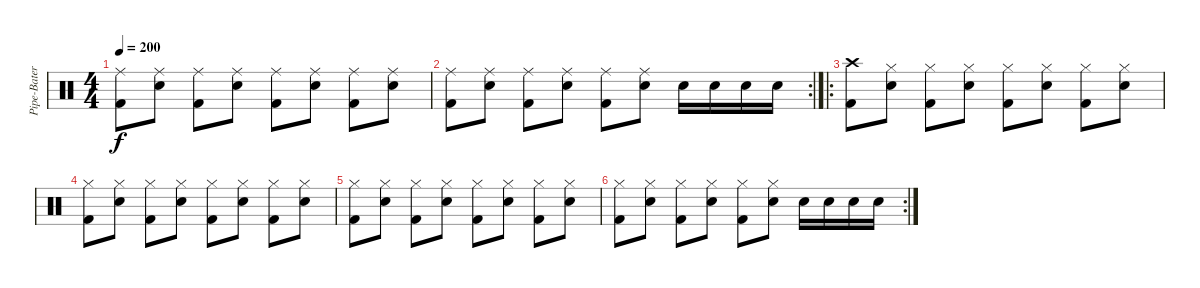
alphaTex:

\track ("Pipe-Bateria" "Pipe-Bater") {instrument percussion}
\staff {score}
\articulation defaults
\ts (4 4)
\tempo 200
\clef neutral
\ks c
("Kick (hit) 2" "Ride (middle)").8{dy f} ("Snare (hit) 2" "Ride (middle)").8 ("Kick (hit) 2" "Ride (middle)").8 ("Snare (hit) 2" "Ride (middle)").8 ("Kick (hit) 2" "Ride (middle)").8 ("Snare (hit) 2" "Ride (middle)").8 ("Kick (hit) 2" "Ride (middle)").8 ("Snare (hit) 2" "Ride (middle)").8 |
\rc 2
("Kick (hit) 2" "Ride (middle)").8 ("Snare (hit) 2" "Ride (middle)").8 ("Kick (hit) 2" "Ride (middle)").8 ("Snare (hit) 2" "Ride (middle)").8 ("Kick (hit) 2" "Ride (middle)").8 ("Snare (hit) 2" "Ride (middle)").8 "Snare (hit) 2".16 "Snare (hit) 2".16 "Snare (hit) 2".16 "Snare (hit) 2".16 |
\ro
("Kick (hit) 2" "Crash high (hit)").8 ("Snare (hit) 2" "Hi-Hat (closed)").8 ("Kick (hit) 2" "Hi-Hat (closed)").8 ("Snare (hit) 2" "Hi-Hat (closed)").8 ("Kick (hit) 2" "Hi-Hat (closed)").8 ("Snare (hit) 2" "Hi-Hat (closed)").8 ("Kick (hit) 2" "Hi-Hat (closed)").8 ("Snare (hit) 2" "Hi-Hat (closed)").8 |
("Kick (hit) 2" "Hi-Hat (closed)").8 ("Snare (hit) 2" "Hi-Hat (closed)").8 ("Kick (hit) 2" "Hi-Hat (closed)").8 ("Snare (hit) 2" "Hi-Hat (closed)").8 ("Kick (hit) 2" "Hi-Hat (closed)").8 ("Snare (hit) 2" "Hi-Hat (closed)").8 ("Kick (hit) 2" "Hi-Hat (closed)").8 ("Snare (hit) 2" "Hi-Hat (closed)").8 |
("Kick (hit) 2" "Hi-Hat (closed)").8 ("Snare (hit) 2" "Hi-Hat (closed)").8 ("Kick (hit) 2" "Hi-Hat (closed)").8 ("Snare (hit) 2" "Hi-Hat (closed)").8 ("Kick (hit) 2" "Hi-Hat (closed)").8 ("Snare (hit) 2" "Hi-Hat (closed)").8 ("Kick (hit) 2" "Hi-Hat (closed)").8 ("Snare (hit) 2" "Hi-Hat (closed)").8 |
\rc 2
("Kick (hit) 2" "Hi-Hat (closed)").8 ("Snare (hit) 2" "Hi-Hat (closed)").8 ("Kick (hit) 2" "Hi-Hat (closed)").8 ("Snare (hit) 2" "Hi-Hat (closed)").8 ("Kick (hit) 2" "Hi-Hat (closed)").8 ("Snare (hit) 2" "Hi-Hat (closed)").8 "Snare (hit) 2".16 "Snare (hit) 2".16 "Snare (hit) 2".16 "Snare (hit) 2".16
